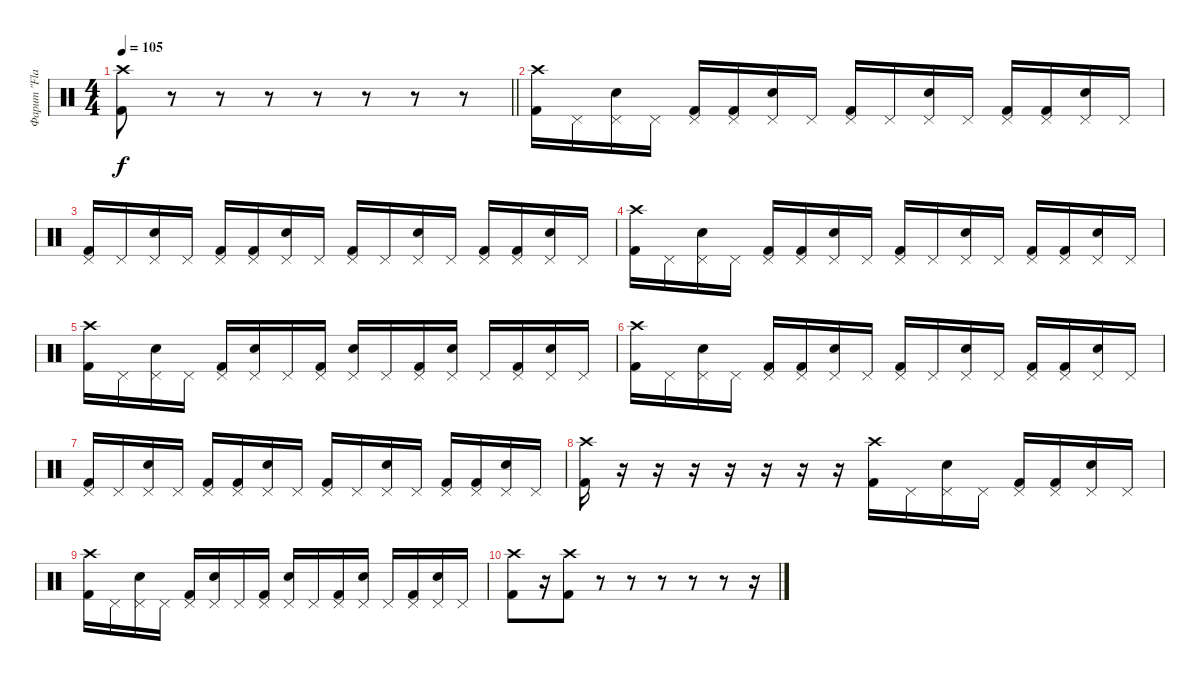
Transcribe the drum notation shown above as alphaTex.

\track ("Фарит \"Flag\" Шакиров" "Фарит \"Fla") {instrument percussion}
\staff {score}
\articulation defaults
\ts (4 4)
\tempo 105
\clef neutral
\barLineRight lightlight
\ks c
("Crash high (hit)" "Kick (hit) 2").8{dy f} r.8 r.8 r.8 r.8 r.8 r.8 r.8 |
\section ("" "")
("Crash high (hit)" "Kick (hit) 2").16 "Pedal Hi-Hat (hit)".16 ("Pedal Hi-Hat (hit)" "Electric Snare (hit)").16 "Pedal Hi-Hat (hit)".16 ("Pedal Hi-Hat (hit)" "Kick (hit) 2").16 ("Pedal Hi-Hat (hit)" "Kick (hit) 2").16 ("Pedal Hi-Hat (hit)" "Electric Snare (hit)").16 "Pedal Hi-Hat (hit)".16 ("Pedal Hi-Hat (hit)" "Kick (hit) 2").16 "Pedal Hi-Hat (hit)".16 ("Pedal Hi-Hat (hit)" "Electric Snare (hit)").16 "Pedal Hi-Hat (hit)".16 ("Pedal Hi-Hat (hit)" "Kick (hit) 2").16 ("Pedal Hi-Hat (hit)" "Kick (hit) 2").16 ("Pedal Hi-Hat (hit)" "Electric Snare (hit)").16 "Pedal Hi-Hat (hit)".16 |
("Pedal Hi-Hat (hit)" "Kick (hit) 2").16 "Pedal Hi-Hat (hit)".16 ("Pedal Hi-Hat (hit)" "Electric Snare (hit)").16 "Pedal Hi-Hat (hit)".16 ("Pedal Hi-Hat (hit)" "Kick (hit) 2").16 ("Pedal Hi-Hat (hit)" "Kick (hit) 2").16 ("Pedal Hi-Hat (hit)" "Electric Snare (hit)").16 "Pedal Hi-Hat (hit)".16 ("Pedal Hi-Hat (hit)" "Kick (hit) 2").16 "Pedal Hi-Hat (hit)".16 ("Pedal Hi-Hat (hit)" "Electric Snare (hit)").16 "Pedal Hi-Hat (hit)".16 ("Pedal Hi-Hat (hit)" "Kick (hit) 2").16 ("Pedal Hi-Hat (hit)" "Kick (hit) 2").16 ("Pedal Hi-Hat (hit)" "Electric Snare (hit)").16 "Pedal Hi-Hat (hit)".16 |
("Crash high (hit)" "Kick (hit) 2").16 "Pedal Hi-Hat (hit)".16 ("Pedal Hi-Hat (hit)" "Electric Snare (hit)").16 "Pedal Hi-Hat (hit)".16 ("Pedal Hi-Hat (hit)" "Kick (hit) 2").16 ("Pedal Hi-Hat (hit)" "Kick (hit) 2").16 ("Pedal Hi-Hat (hit)" "Electric Snare (hit)").16 "Pedal Hi-Hat (hit)".16 ("Pedal Hi-Hat (hit)" "Kick (hit) 2").16 "Pedal Hi-Hat (hit)".16 ("Pedal Hi-Hat (hit)" "Electric Snare (hit)").16 "Pedal Hi-Hat (hit)".16 ("Pedal Hi-Hat (hit)" "Kick (hit) 2").16 ("Pedal Hi-Hat (hit)" "Kick (hit) 2").16 ("Pedal Hi-Hat (hit)" "Electric Snare (hit)").16 "Pedal Hi-Hat (hit)".16 |
("Crash high (hit)" "Kick (hit) 2").16 "Pedal Hi-Hat (hit)".16 ("Pedal Hi-Hat (hit)" "Electric Snare (hit)").16 "Pedal Hi-Hat (hit)".16 ("Pedal Hi-Hat (hit)" "Kick (hit) 2").16 ("Pedal Hi-Hat (hit)" "Electric Snare (hit)").16 "Pedal Hi-Hat (hit)".16 ("Pedal Hi-Hat (hit)" "Kick (hit) 2").16 ("Pedal Hi-Hat (hit)" "Electric Snare (hit)").16 "Pedal Hi-Hat (hit)".16 ("Pedal Hi-Hat (hit)" "Kick (hit) 2").16 ("Pedal Hi-Hat (hit)" "Electric Snare (hit)").16 "Pedal Hi-Hat (hit)".16 ("Pedal Hi-Hat (hit)" "Kick (hit) 2").16 ("Pedal Hi-Hat (hit)" "Electric Snare (hit)").16 "Pedal Hi-Hat (hit)".16 |
("Crash high (hit)" "Kick (hit) 2").16 "Pedal Hi-Hat (hit)".16 ("Pedal Hi-Hat (hit)" "Electric Snare (hit)").16 "Pedal Hi-Hat (hit)".16 ("Pedal Hi-Hat (hit)" "Kick (hit) 2").16 ("Pedal Hi-Hat (hit)" "Kick (hit) 2").16 ("Pedal Hi-Hat (hit)" "Electric Snare (hit)").16 "Pedal Hi-Hat (hit)".16 ("Pedal Hi-Hat (hit)" "Kick (hit) 2").16 "Pedal Hi-Hat (hit)".16 ("Pedal Hi-Hat (hit)" "Electric Snare (hit)").16 "Pedal Hi-Hat (hit)".16 ("Pedal Hi-Hat (hit)" "Kick (hit) 2").16 ("Pedal Hi-Hat (hit)" "Kick (hit) 2").16 ("Pedal Hi-Hat (hit)" "Electric Snare (hit)").16 "Pedal Hi-Hat (hit)".16 |
("Pedal Hi-Hat (hit)" "Kick (hit) 2").16 "Pedal Hi-Hat (hit)".16 ("Pedal Hi-Hat (hit)" "Electric Snare (hit)").16 "Pedal Hi-Hat (hit)".16 ("Pedal Hi-Hat (hit)" "Kick (hit) 2").16 ("Pedal Hi-Hat (hit)" "Kick (hit) 2").16 ("Pedal Hi-Hat (hit)" "Electric Snare (hit)").16 "Pedal Hi-Hat (hit)".16 ("Pedal Hi-Hat (hit)" "Kick (hit) 2").16 "Pedal Hi-Hat (hit)".16 ("Pedal Hi-Hat (hit)" "Electric Snare (hit)").16 "Pedal Hi-Hat (hit)".16 ("Pedal Hi-Hat (hit)" "Kick (hit) 2").16 ("Pedal Hi-Hat (hit)" "Kick (hit) 2").16 ("Pedal Hi-Hat (hit)" "Electric Snare (hit)").16 "Pedal Hi-Hat (hit)".16 |
("Crash high (hit)" "Kick (hit) 2").16 r.16 r.16 r.16 r.16 r.16 r.16 r.16 ("Crash high (hit)" "Kick (hit) 2").16 "Pedal Hi-Hat (hit)".16 ("Pedal Hi-Hat (hit)" "Electric Snare (hit)").16 "Pedal Hi-Hat (hit)".16 ("Pedal Hi-Hat (hit)" "Kick (hit) 2").16 ("Pedal Hi-Hat (hit)" "Kick (hit) 2").16 ("Pedal Hi-Hat (hit)" "Electric Snare (hit)").16 "Pedal Hi-Hat (hit)".16 |
("Crash high (hit)" "Kick (hit) 2").16 "Pedal Hi-Hat (hit)".16 ("Pedal Hi-Hat (hit)" "Electric Snare (hit)").16 "Pedal Hi-Hat (hit)".16 ("Pedal Hi-Hat (hit)" "Kick (hit) 2").16 ("Pedal Hi-Hat (hit)" "Electric Snare (hit)").16 "Pedal Hi-Hat (hit)".16 ("Pedal Hi-Hat (hit)" "Kick (hit) 2").16 ("Pedal Hi-Hat (hit)" "Electric Snare (hit)").16 "Pedal Hi-Hat (hit)".16 ("Pedal Hi-Hat (hit)" "Kick (hit) 2").16 ("Pedal Hi-Hat (hit)" "Electric Snare (hit)").16 "Pedal Hi-Hat (hit)".16 ("Pedal Hi-Hat (hit)" "Kick (hit) 2").16 ("Pedal Hi-Hat (hit)" "Electric Snare (hit)").16 "Pedal Hi-Hat (hit)".16 |
("Crash high (hit)" "Kick (hit) 2").8 r.16 ("Kick (hit) 2" "Crash high (hit)").8 r.8 r.8 r.8 r.8 r.8 r.16
